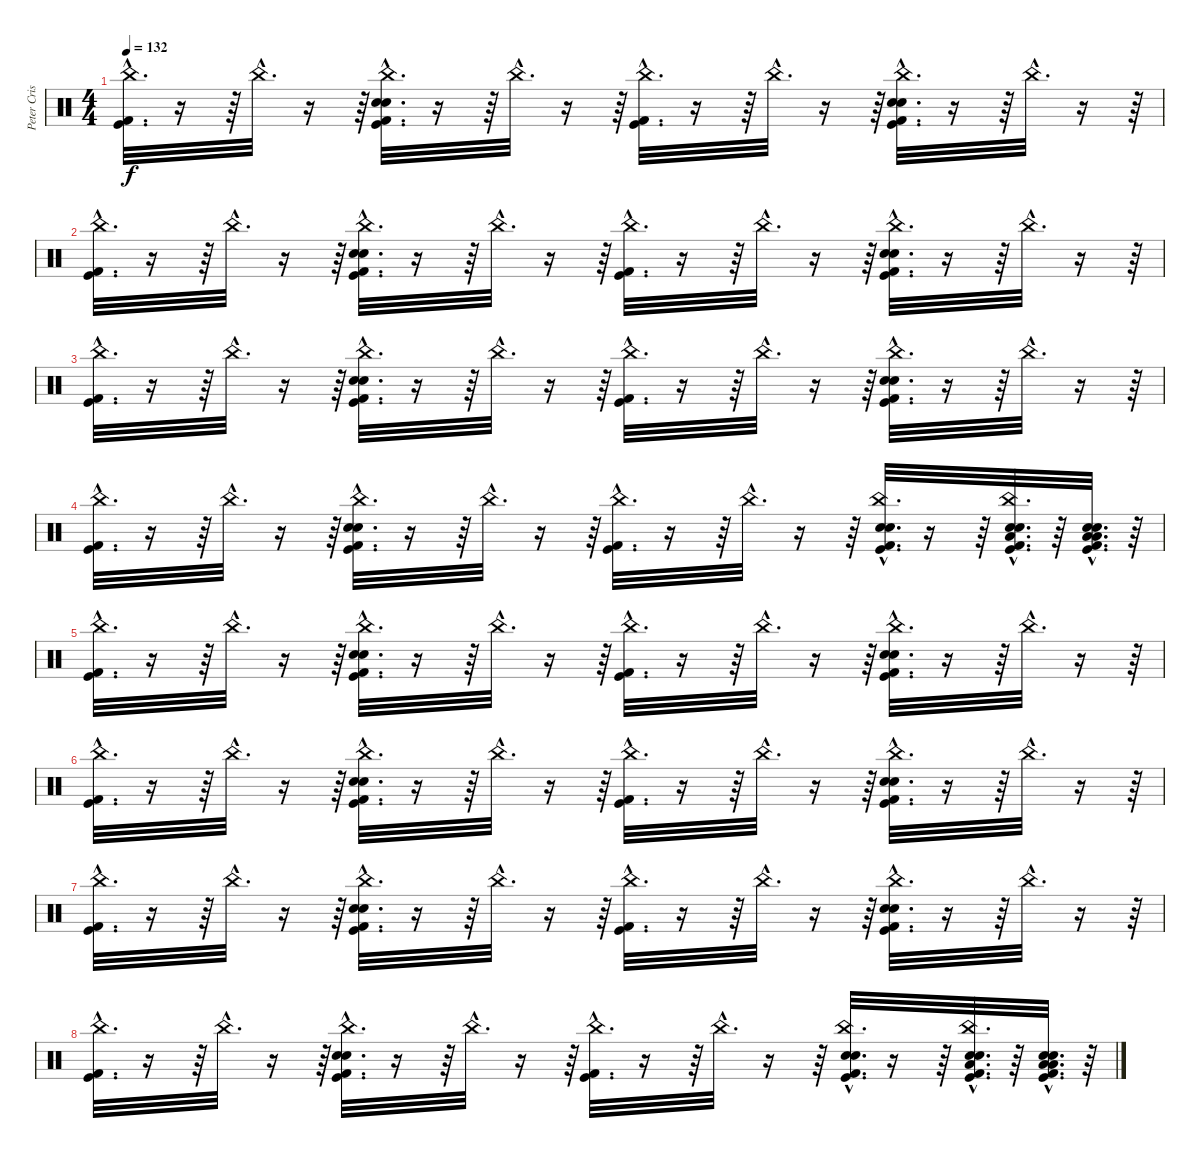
\track ("Peter Criss" "Peter Cris") {instrument percussion}
\staff {score}
\articulation defaults
\ts (4 4)
\tempo 132
\clef neutral
\ks c
("Kick (hit) 2"{hac} "Kick (hit)"{hac} "China (hit)"{hac}).32{d dy f} r.16 r.64 "China (hit)"{hac}.32{d} r.16 r.64 ("Kick (hit) 2"{hac} "Kick (hit)"{hac} "China (hit)"{hac} "Electric Snare (hit)"{hac} "Snare (hit) 2"{hac}).32{d} r.16 r.64 "China (hit)"{hac}.32{d} r.16 r.64 ("Kick (hit) 2"{hac} "Kick (hit)"{hac} "China (hit)"{hac}).32{d} r.16 r.64 "China (hit)"{hac}.32{d} r.16 r.64 ("Kick (hit) 2"{hac} "Kick (hit)"{hac} "China (hit)"{hac} "Electric Snare (hit)"{hac} "Snare (hit) 2"{hac}).32{d} r.16 r.64 "China (hit)"{hac}.32{d} r.16 r.64 |
("Kick (hit) 2"{hac} "Kick (hit)"{hac} "China (hit)"{hac}).32{d} r.16 r.64 "China (hit)"{hac}.32{d} r.16 r.64 ("Kick (hit) 2"{hac} "Kick (hit)"{hac} "China (hit)"{hac} "Electric Snare (hit)"{hac} "Snare (hit) 2"{hac}).32{d} r.16 r.64 "China (hit)"{hac}.32{d} r.16 r.64 ("Kick (hit) 2"{hac} "Kick (hit)"{hac} "China (hit)"{hac}).32{d} r.16 r.64 "China (hit)"{hac}.32{d} r.16 r.64 ("Kick (hit) 2"{hac} "Kick (hit)"{hac} "China (hit)"{hac} "Electric Snare (hit)"{hac} "Snare (hit) 2"{hac}).32{d} r.16 r.64 "China (hit)"{hac}.32{d} r.16 r.64 |
("Kick (hit) 2"{hac} "Kick (hit)"{hac} "China (hit)"{hac}).32{d} r.16 r.64 "China (hit)"{hac}.32{d} r.16 r.64 ("Kick (hit) 2"{hac} "Kick (hit)"{hac} "China (hit)"{hac} "Electric Snare (hit)"{hac} "Snare (hit) 2"{hac}).32{d} r.16 r.64 "China (hit)"{hac}.32{d} r.16 r.64 ("Kick (hit) 2"{hac} "Kick (hit)"{hac} "China (hit)"{hac}).32{d} r.16 r.64 "China (hit)"{hac}.32{d} r.16 r.64 ("Kick (hit) 2"{hac} "Kick (hit)"{hac} "China (hit)"{hac} "Electric Snare (hit)"{hac} "Snare (hit) 2"{hac}).32{d} r.16 r.64 "China (hit)"{hac}.32{d} r.16 r.64 |
("Kick (hit) 2"{hac} "Kick (hit)"{hac} "China (hit)"{hac}).32{d} r.16 r.64 "China (hit)"{hac}.32{d} r.16 r.64 ("Kick (hit) 2"{hac} "Kick (hit)"{hac} "China (hit)"{hac} "Electric Snare (hit)"{hac} "Snare (hit) 2"{hac}).32{d} r.16 r.64 "China (hit)"{hac}.32{d} r.16 r.64 ("Kick (hit) 2"{hac} "Kick (hit)"{hac} "China (hit)"{hac}).32{d} r.16 r.64 "China (hit)"{hac}.32{d} r.16 r.64 ("Kick (hit) 2"{hac} "Kick (hit)"{hac} "China (hit)"{hac} "Electric Snare (hit)"{hac} "Snare (hit) 2"{hac}).32{d} r.16 r.64 ("China (hit)"{hac} "Electric Snare (hit)"{hac} "Snare (hit) 2"{hac} "Kick (hit) 2"{hac} "Kick (hit)"{hac} "Low Floor Tom (hit)"{hac}).32{d} r.64 ("Electric Snare (hit)"{hac} "Snare (hit) 2"{hac} "Kick (hit) 2"{hac} "Kick (hit)"{hac} "Low Tom (hit)"{hac} "Low Floor Tom (hit)"{hac}).32{d} r.64 |
("Kick (hit) 2"{hac} "Kick (hit)"{hac} "China (hit)"{hac}).32{d} r.16 r.64 "China (hit)"{hac}.32{d} r.16 r.64 ("Kick (hit) 2"{hac} "Kick (hit)"{hac} "China (hit)"{hac} "Electric Snare (hit)"{hac} "Snare (hit) 2"{hac}).32{d} r.16 r.64 "China (hit)"{hac}.32{d} r.16 r.64 ("Kick (hit) 2"{hac} "Kick (hit)"{hac} "China (hit)"{hac}).32{d} r.16 r.64 "China (hit)"{hac}.32{d} r.16 r.64 ("Kick (hit) 2"{hac} "Kick (hit)"{hac} "China (hit)"{hac} "Electric Snare (hit)"{hac} "Snare (hit) 2"{hac}).32{d} r.16 r.64 "China (hit)"{hac}.32{d} r.16 r.64 |
("Kick (hit) 2"{hac} "Kick (hit)"{hac} "China (hit)"{hac}).32{d} r.16 r.64 "China (hit)"{hac}.32{d} r.16 r.64 ("Kick (hit) 2"{hac} "Kick (hit)"{hac} "China (hit)"{hac} "Electric Snare (hit)"{hac} "Snare (hit) 2"{hac}).32{d} r.16 r.64 "China (hit)"{hac}.32{d} r.16 r.64 ("Kick (hit) 2"{hac} "Kick (hit)"{hac} "China (hit)"{hac}).32{d} r.16 r.64 "China (hit)"{hac}.32{d} r.16 r.64 ("Kick (hit) 2"{hac} "Kick (hit)"{hac} "China (hit)"{hac} "Electric Snare (hit)"{hac} "Snare (hit) 2"{hac}).32{d} r.16 r.64 "China (hit)"{hac}.32{d} r.16 r.64 |
("Kick (hit) 2"{hac} "Kick (hit)"{hac} "China (hit)"{hac}).32{d} r.16 r.64 "China (hit)"{hac}.32{d} r.16 r.64 ("Kick (hit) 2"{hac} "Kick (hit)"{hac} "China (hit)"{hac} "Electric Snare (hit)"{hac} "Snare (hit) 2"{hac}).32{d} r.16 r.64 "China (hit)"{hac}.32{d} r.16 r.64 ("Kick (hit) 2"{hac} "Kick (hit)"{hac} "China (hit)"{hac}).32{d} r.16 r.64 "China (hit)"{hac}.32{d} r.16 r.64 ("Kick (hit) 2"{hac} "Kick (hit)"{hac} "China (hit)"{hac} "Electric Snare (hit)"{hac} "Snare (hit) 2"{hac}).32{d} r.16 r.64 "China (hit)"{hac}.32{d} r.16 r.64 |
("Kick (hit) 2"{hac} "Kick (hit)"{hac} "China (hit)"{hac}).32{d} r.16 r.64 "China (hit)"{hac}.32{d} r.16 r.64 ("Kick (hit) 2"{hac} "Kick (hit)"{hac} "China (hit)"{hac} "Electric Snare (hit)"{hac} "Snare (hit) 2"{hac}).32{d} r.16 r.64 "China (hit)"{hac}.32{d} r.16 r.64 ("Kick (hit) 2"{hac} "Kick (hit)"{hac} "China (hit)"{hac}).32{d} r.16 r.64 "China (hit)"{hac}.32{d} r.16 r.64 ("Kick (hit) 2"{hac} "Kick (hit)"{hac} "China (hit)"{hac} "Electric Snare (hit)"{hac} "Snare (hit) 2"{hac}).32{d} r.16 r.64 ("China (hit)"{hac} "Electric Snare (hit)"{hac} "Snare (hit) 2"{hac} "Kick (hit) 2"{hac} "Kick (hit)"{hac} "Low Floor Tom (hit)"{hac}).32{d} r.64 ("Electric Snare (hit)"{hac} "Snare (hit) 2"{hac} "Kick (hit) 2"{hac} "Kick (hit)"{hac} "Low Tom (hit)"{hac} "Low Floor Tom (hit)"{hac}).32{d} r.64
